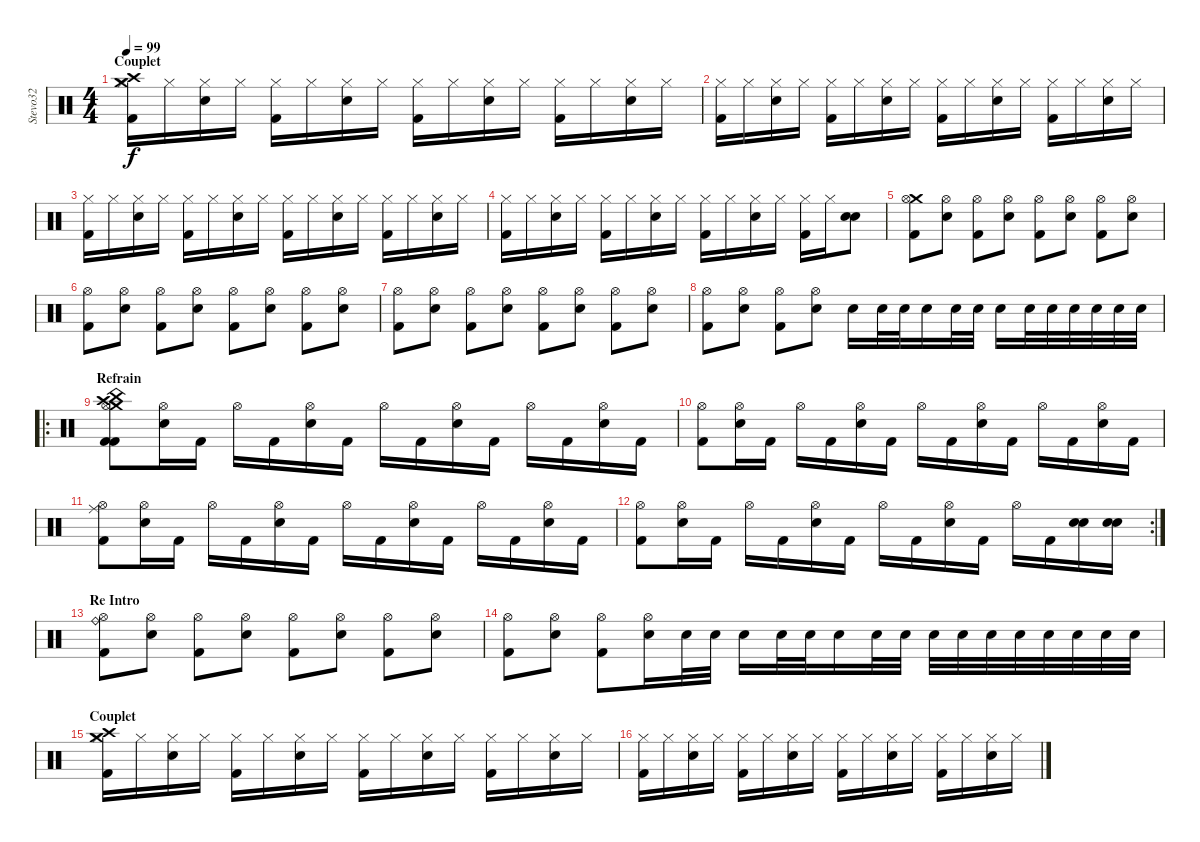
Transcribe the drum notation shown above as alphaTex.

\track ("Stevo32" "Stevo32") {instrument percussion}
\staff {score}
\articulation defaults
\ts (4 4)
\section ("" "Couplet")
\tempo 99
\clef neutral
\ks c
("Crash medium (hit)" "Hi-Hat (closed)" "Crash high (hit)" "Kick (hit) 2").16{dy f} "Hi-Hat (closed)".16 ("Hi-Hat (closed)" "Electric Snare (hit)").16 "Hi-Hat (closed)".16 ("Hi-Hat (closed)" "Kick (hit) 2").16 "Hi-Hat (closed)".16 ("Hi-Hat (closed)" "Electric Snare (hit)").16 "Hi-Hat (closed)".16 ("Hi-Hat (closed)" "Kick (hit) 2").16 "Hi-Hat (closed)".16 ("Hi-Hat (closed)" "Electric Snare (hit)").16 "Hi-Hat (closed)".16 ("Hi-Hat (closed)" "Kick (hit) 2").16 "Hi-Hat (closed)".16 ("Hi-Hat (closed)" "Electric Snare (hit)").16 "Hi-Hat (closed)".16 |
("Hi-Hat (closed)" "Kick (hit) 2").16 "Hi-Hat (closed)".16 ("Hi-Hat (closed)" "Electric Snare (hit)").16 "Hi-Hat (closed)".16 ("Hi-Hat (closed)" "Kick (hit) 2").16 "Hi-Hat (closed)".16 ("Hi-Hat (closed)" "Electric Snare (hit)").16 "Hi-Hat (closed)".16 ("Hi-Hat (closed)" "Kick (hit) 2").16 "Hi-Hat (closed)".16 ("Hi-Hat (closed)" "Electric Snare (hit)").16 "Hi-Hat (closed)".16 ("Hi-Hat (closed)" "Kick (hit) 2").16 "Hi-Hat (closed)".16 ("Hi-Hat (closed)" "Electric Snare (hit)").16 "Hi-Hat (closed)".16 |
("Hi-Hat (closed)" "Kick (hit) 2").16 "Hi-Hat (closed)".16 ("Hi-Hat (closed)" "Electric Snare (hit)").16 "Hi-Hat (closed)".16 ("Hi-Hat (closed)" "Kick (hit) 2").16 "Hi-Hat (closed)".16 ("Hi-Hat (closed)" "Electric Snare (hit)").16 "Hi-Hat (closed)".16 ("Hi-Hat (closed)" "Kick (hit) 2").16 "Hi-Hat (closed)".16 ("Hi-Hat (closed)" "Electric Snare (hit)").16 "Hi-Hat (closed)".16 ("Hi-Hat (closed)" "Kick (hit) 2").16 "Hi-Hat (closed)".16 ("Hi-Hat (closed)" "Electric Snare (hit)").16 "Hi-Hat (closed)".16 |
("Hi-Hat (closed)" "Kick (hit) 2").16 "Hi-Hat (closed)".16 ("Hi-Hat (closed)" "Electric Snare (hit)").16 "Hi-Hat (closed)".16 ("Hi-Hat (closed)" "Kick (hit) 2").16 "Hi-Hat (closed)".16 ("Hi-Hat (closed)" "Electric Snare (hit)").16 "Hi-Hat (closed)".16 ("Hi-Hat (closed)" "Kick (hit) 2").16 "Hi-Hat (closed)".16 ("Hi-Hat (closed)" "Electric Snare (hit)").16 "Hi-Hat (closed)".16 ("Hi-Hat (closed)" "Kick (hit) 2").16 "Hi-Hat (closed)".16 ("Electric Snare (hit)" "Electric Snare (hit)").8 |
("Crash medium (hit)" "Hi-Hat (open)" "Kick (hit) 2").8 ("Hi-Hat (open)" "Electric Snare (hit)").8 ("Hi-Hat (open)" "Kick (hit) 2").8 ("Hi-Hat (open)" "Electric Snare (hit)").8 ("Hi-Hat (open)" "Kick (hit) 2").8 ("Hi-Hat (open)" "Electric Snare (hit)").8 ("Hi-Hat (open)" "Kick (hit) 2").8 ("Hi-Hat (open)" "Electric Snare (hit)").8 |
("Hi-Hat (open)" "Kick (hit) 2").8 ("Hi-Hat (open)" "Electric Snare (hit)").8 ("Hi-Hat (open)" "Kick (hit) 2").8 ("Hi-Hat (open)" "Electric Snare (hit)").8 ("Hi-Hat (open)" "Kick (hit) 2").8 ("Hi-Hat (open)" "Electric Snare (hit)").8 ("Hi-Hat (open)" "Kick (hit) 2").8 ("Hi-Hat (open)" "Electric Snare (hit)").8 |
("Hi-Hat (open)" "Kick (hit) 2").8 ("Hi-Hat (open)" "Electric Snare (hit)").8 ("Hi-Hat (open)" "Kick (hit) 2").8 ("Hi-Hat (open)" "Electric Snare (hit)").8 ("Hi-Hat (open)" "Kick (hit) 2").8 ("Hi-Hat (open)" "Electric Snare (hit)").8 ("Hi-Hat (open)" "Kick (hit) 2").8 ("Hi-Hat (open)" "Electric Snare (hit)").8 |
("Hi-Hat (open)" "Kick (hit) 2").8 ("Hi-Hat (open)" "Electric Snare (hit)").8 ("Hi-Hat (open)" "Kick (hit) 2").8 ("Hi-Hat (open)" "Electric Snare (hit)").8 "Electric Snare (hit)".16 "Electric Snare (hit)".32 "Electric Snare (hit)".32 "Electric Snare (hit)".16 "Electric Snare (hit)".32 "Electric Snare (hit)".32 "Electric Snare (hit)".16 "Electric Snare (hit)".32 "Electric Snare (hit)".32 "Electric Snare (hit)".32 "Electric Snare (hit)".32 "Electric Snare (hit)".32 "Electric Snare (hit)".32 |
\ro
\section ("" "Refrain")
("China (hit)" "Crash high (hit)" "Crash medium (hit)" "Hi-Hat (open)" "Kick (hit) 2" "Kick (hit) 2").8 ("Hi-Hat (open)" "Electric Snare (hit)").16 "Kick (hit) 2".16 "Hi-Hat (open)".16 "Kick (hit) 2".16 ("Hi-Hat (open)" "Electric Snare (hit)").16 "Kick (hit) 2".16 "Hi-Hat (open)".16 "Kick (hit) 2".16 ("Hi-Hat (open)" "Electric Snare (hit)").16 "Kick (hit) 2".16 "Hi-Hat (open)".16 "Kick (hit) 2".16 ("Hi-Hat (open)" "Electric Snare (hit)").16 "Kick (hit) 2".16 |
("Hi-Hat (open)" "Kick (hit) 2").8 ("Hi-Hat (open)" "Electric Snare (hit)").16 "Kick (hit) 2".16 "Hi-Hat (open)".16 "Kick (hit) 2".16 ("Hi-Hat (open)" "Electric Snare (hit)").16 "Kick (hit) 2".16 "Hi-Hat (open)".16 "Kick (hit) 2".16 ("Hi-Hat (open)" "Electric Snare (hit)").16 "Kick (hit) 2".16 "Hi-Hat (open)".16 "Kick (hit) 2".16 ("Hi-Hat (open)" "Electric Snare (hit)").16 "Kick (hit) 2".16 |
("Hi-Hat (open)" "Ride (middle)" "Kick (hit) 2").8 ("Hi-Hat (open)" "Electric Snare (hit)").16 "Kick (hit) 2".16 "Hi-Hat (open)".16 "Kick (hit) 2".16 ("Hi-Hat (open)" "Electric Snare (hit)").16 "Kick (hit) 2".16 "Hi-Hat (open)".16 "Kick (hit) 2".16 ("Hi-Hat (open)" "Electric Snare (hit)").16 "Kick (hit) 2".16 "Hi-Hat (open)".16 "Kick (hit) 2".16 ("Hi-Hat (open)" "Electric Snare (hit)").16 "Kick (hit) 2".16 |
\rc 2
("Hi-Hat (open)" "Kick (hit) 2").8 ("Hi-Hat (open)" "Electric Snare (hit)").16 "Kick (hit) 2".16 "Hi-Hat (open)".16 "Kick (hit) 2".16 ("Hi-Hat (open)" "Electric Snare (hit)").16 "Kick (hit) 2".16 "Hi-Hat (open)".16 "Kick (hit) 2".16 ("Hi-Hat (open)" "Electric Snare (hit)").16 "Kick (hit) 2".16 "Hi-Hat (open)".16 "Kick (hit) 2".16 ("Electric Snare (hit)" "Electric Snare (hit)").16 ("Electric Snare (hit)" "Electric Snare (hit)").16 |
\section ("" "Re Intro")
("Hi-Hat (open)" "Ride (bell)" "Kick (hit) 2").8 ("Hi-Hat (open)" "Electric Snare (hit)").8 ("Hi-Hat (open)" "Kick (hit) 2").8 ("Hi-Hat (open)" "Electric Snare (hit)").8 ("Hi-Hat (open)" "Kick (hit) 2").8 ("Hi-Hat (open)" "Electric Snare (hit)").8 ("Hi-Hat (open)" "Kick (hit) 2").8 ("Hi-Hat (open)" "Electric Snare (hit)").8 |
("Hi-Hat (open)" "Kick (hit) 2").8 ("Hi-Hat (open)" "Electric Snare (hit)").8 ("Hi-Hat (open)" "Kick (hit) 2").8 ("Hi-Hat (open)" "Electric Snare (hit)").16 "Electric Snare (hit)".32 "Electric Snare (hit)".32 "Electric Snare (hit)".16 "Electric Snare (hit)".32 "Electric Snare (hit)".32 "Electric Snare (hit)".16 "Electric Snare (hit)".32 "Electric Snare (hit)".32 "Electric Snare (hit)".32 "Electric Snare (hit)".32 "Electric Snare (hit)".32 "Electric Snare (hit)".32 "Electric Snare (hit)".32 "Electric Snare (hit)".32 "Electric Snare (hit)".32 "Electric Snare (hit)".32 |
\section ("" "Couplet")
("Crash medium (hit)" "Hi-Hat (closed)" "Crash high (hit)" "Kick (hit) 2").16 "Hi-Hat (closed)".16 ("Hi-Hat (closed)" "Electric Snare (hit)").16 "Hi-Hat (closed)".16 ("Hi-Hat (closed)" "Kick (hit) 2").16 "Hi-Hat (closed)".16 ("Hi-Hat (closed)" "Electric Snare (hit)").16 "Hi-Hat (closed)".16 ("Hi-Hat (closed)" "Kick (hit) 2").16 "Hi-Hat (closed)".16 ("Hi-Hat (closed)" "Electric Snare (hit)").16 "Hi-Hat (closed)".16 ("Hi-Hat (closed)" "Kick (hit) 2").16 "Hi-Hat (closed)".16 ("Hi-Hat (closed)" "Electric Snare (hit)").16 "Hi-Hat (closed)".16 |
("Hi-Hat (closed)" "Kick (hit) 2").16 "Hi-Hat (closed)".16 ("Hi-Hat (closed)" "Electric Snare (hit)").16 "Hi-Hat (closed)".16 ("Hi-Hat (closed)" "Kick (hit) 2").16 "Hi-Hat (closed)".16 ("Hi-Hat (closed)" "Electric Snare (hit)").16 "Hi-Hat (closed)".16 ("Hi-Hat (closed)" "Kick (hit) 2").16 "Hi-Hat (closed)".16 ("Hi-Hat (closed)" "Electric Snare (hit)").16 "Hi-Hat (closed)".16 ("Hi-Hat (closed)" "Kick (hit) 2").16 "Hi-Hat (closed)".16 ("Hi-Hat (closed)" "Electric Snare (hit)").16 "Hi-Hat (closed)".16
